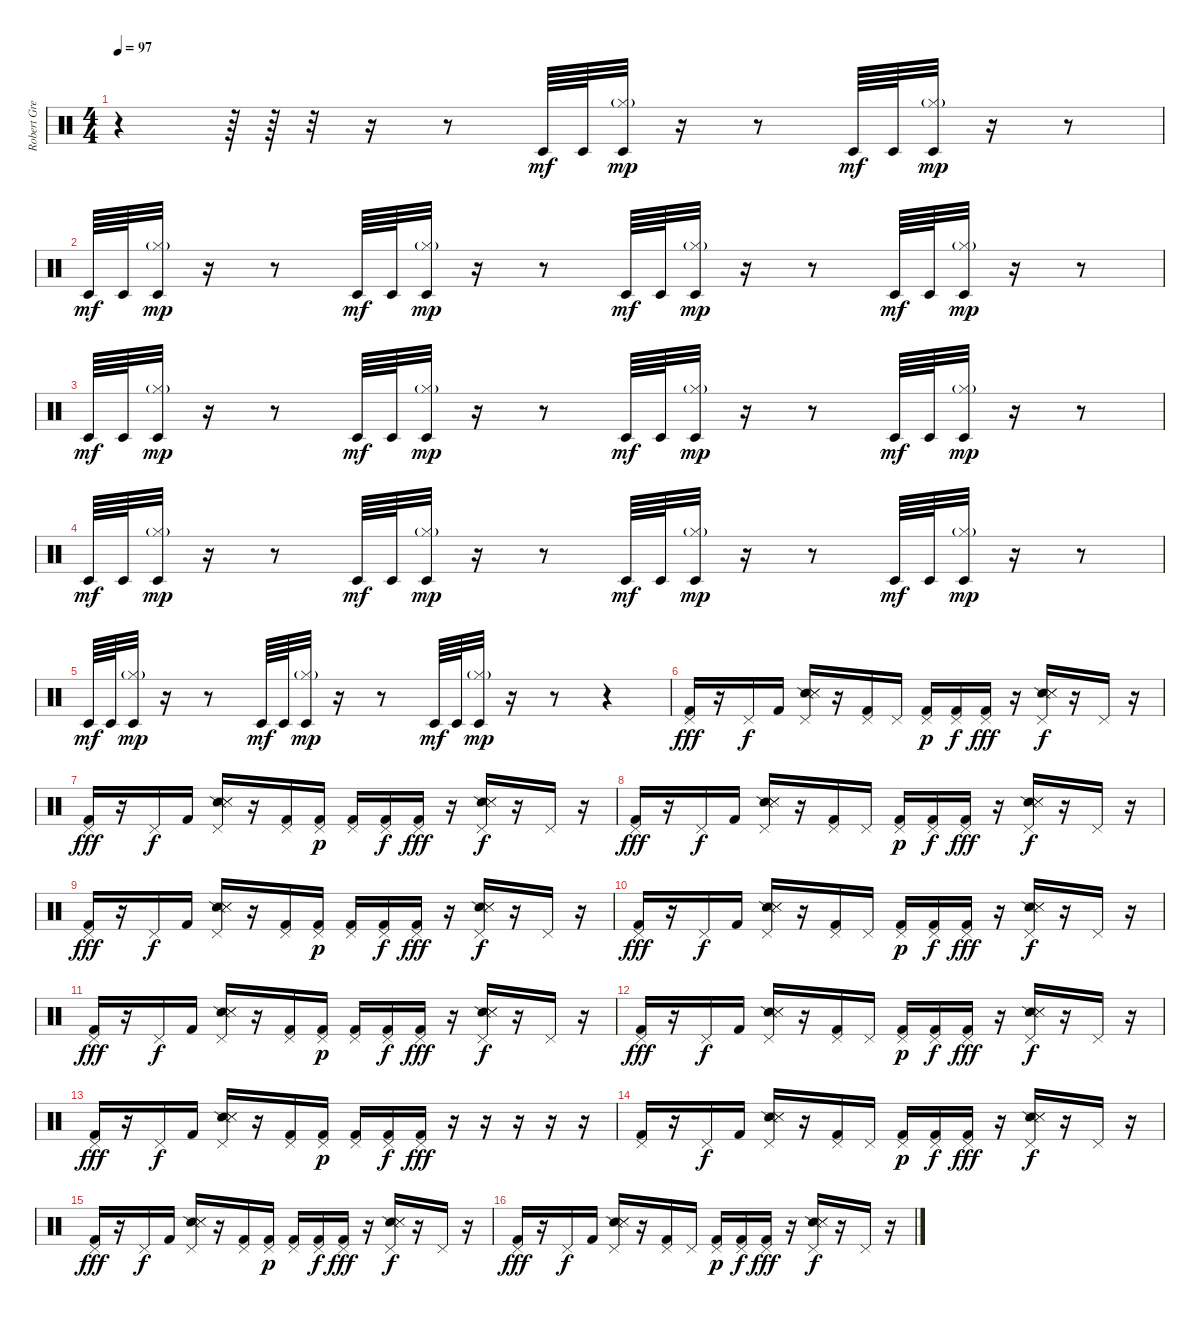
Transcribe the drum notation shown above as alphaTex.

\track ("Robert Gregory Bourdan/'Groop' sound" "Robert Gre") {instrument percussion}
\staff {score}
\articulation defaults
\ts (4 4)
\tempo 97
\clef neutral
\ks c
r.4{dy mf volume 12} r.64 r.64 r.32 r.16 r.8 "Timbale low (hit)".64 "Timbale low (hit)".64 ("Timbale low (hit)" "Hi-Hat (closed)"{g}).32{dy mp} r.16 r.8 "Timbale low (hit)".64{dy mf} "Timbale low (hit)".64 ("Timbale low (hit)" "Hi-Hat (closed)"{g}).32{dy mp} r.16 r.8 |
"Timbale low (hit)".64{dy mf volume 12} "Timbale low (hit)".64 ("Timbale low (hit)" "Hi-Hat (closed)"{g}).32{dy mp} r.16 r.8 "Timbale low (hit)".64{dy mf} "Timbale low (hit)".64 ("Timbale low (hit)" "Hi-Hat (closed)"{g}).32{dy mp} r.16 r.8 "Timbale low (hit)".64{dy mf} "Timbale low (hit)".64 ("Timbale low (hit)" "Hi-Hat (closed)"{g}).32{dy mp} r.16 r.8 "Timbale low (hit)".64{dy mf} "Timbale low (hit)".64 ("Timbale low (hit)" "Hi-Hat (closed)"{g}).32{dy mp} r.16 r.8 |
"Timbale low (hit)".64{dy mf volume 12} "Timbale low (hit)".64 ("Timbale low (hit)" "Hi-Hat (closed)"{g}).32{dy mp} r.16 r.8 "Timbale low (hit)".64{dy mf} "Timbale low (hit)".64 ("Timbale low (hit)" "Hi-Hat (closed)"{g}).32{dy mp} r.16 r.8 "Timbale low (hit)".64{dy mf} "Timbale low (hit)".64 ("Timbale low (hit)" "Hi-Hat (closed)"{g}).32{dy mp} r.16 r.8 "Timbale low (hit)".64{dy mf} "Timbale low (hit)".64 ("Timbale low (hit)" "Hi-Hat (closed)"{g}).32{dy mp} r.16 r.8 |
"Timbale low (hit)".64{dy mf volume 12} "Timbale low (hit)".64 ("Timbale low (hit)" "Hi-Hat (closed)"{g}).32{dy mp} r.16 r.8 "Timbale low (hit)".64{dy mf} "Timbale low (hit)".64 ("Timbale low (hit)" "Hi-Hat (closed)"{g}).32{dy mp} r.16 r.8 "Timbale low (hit)".64{dy mf} "Timbale low (hit)".64 ("Timbale low (hit)" "Hi-Hat (closed)"{g}).32{dy mp} r.16 r.8 "Timbale low (hit)".64{dy mf} "Timbale low (hit)".64 ("Timbale low (hit)" "Hi-Hat (closed)"{g}).32{dy mp} r.16 r.8 |
"Timbale low (hit)".64{dy mf volume 12} "Timbale low (hit)".64 ("Timbale low (hit)" "Hi-Hat (closed)"{g}).32{dy mp} r.16 r.8 "Timbale low (hit)".64{dy mf} "Timbale low (hit)".64 ("Timbale low (hit)" "Hi-Hat (closed)"{g}).32{dy mp} r.16 r.8 "Timbale low (hit)".64{dy mf} "Timbale low (hit)".64 ("Timbale low (hit)" "Hi-Hat (closed)"{g}).32{dy mp} r.16 r.8 r.4 |
("Pedal Hi-Hat (hit)" "Kick (hit) 2").16{dy fff volume 16} r.16 "Pedal Hi-Hat (hit)".16{dy f} "Kick (hit) 2".16 ("Pedal Hi-Hat (hit)" "Snare (side stick) 2" "Metronome (hit)" "Snare (side stick) 3").16 r.16 ("Pedal Hi-Hat (hit)" "Kick (hit) 2").16 "Pedal Hi-Hat (hit)".16 ("Pedal Hi-Hat (hit)" "Kick (hit) 2").16{dy p} ("Pedal Hi-Hat (hit)" "Kick (hit) 2").16{dy f} ("Pedal Hi-Hat (hit)" "Kick (hit) 2").16{dy fff} r.16 ("Pedal Hi-Hat (hit)" "Snare (side stick) 2" "Metronome (hit)" "Snare (side stick) 3").16{dy f} r.16 "Pedal Hi-Hat (hit)".16 r.16 |
("Pedal Hi-Hat (hit)" "Kick (hit) 2").16{dy fff} r.16 "Pedal Hi-Hat (hit)".16{dy f} "Kick (hit) 2".16 ("Pedal Hi-Hat (hit)" "Snare (side stick) 2" "Metronome (hit)" "Snare (side stick) 3").16 r.16 ("Pedal Hi-Hat (hit)" "Kick (hit) 2").16 ("Pedal Hi-Hat (hit)" "Kick (hit) 2").16{dy p} ("Pedal Hi-Hat (hit)" "Kick (hit) 2").16 ("Pedal Hi-Hat (hit)" "Kick (hit) 2").16{dy f} ("Pedal Hi-Hat (hit)" "Kick (hit) 2").16{dy fff} r.16 ("Pedal Hi-Hat (hit)" "Snare (side stick) 2" "Metronome (hit)" "Snare (side stick) 3").16{dy f} r.16 "Pedal Hi-Hat (hit)".16 r.16 |
("Pedal Hi-Hat (hit)" "Kick (hit) 2").16{dy fff} r.16 "Pedal Hi-Hat (hit)".16{dy f} "Kick (hit) 2".16 ("Pedal Hi-Hat (hit)" "Snare (side stick) 2" "Metronome (hit)" "Snare (side stick) 3").16 r.16 ("Pedal Hi-Hat (hit)" "Kick (hit) 2").16 "Pedal Hi-Hat (hit)".16 ("Pedal Hi-Hat (hit)" "Kick (hit) 2").16{dy p} ("Pedal Hi-Hat (hit)" "Kick (hit) 2").16{dy f} ("Pedal Hi-Hat (hit)" "Kick (hit) 2").16{dy fff} r.16 ("Pedal Hi-Hat (hit)" "Snare (side stick) 2" "Metronome (hit)" "Snare (side stick) 3").16{dy f} r.16 "Pedal Hi-Hat (hit)".16 r.16 |
("Pedal Hi-Hat (hit)" "Kick (hit) 2").16{dy fff} r.16 "Pedal Hi-Hat (hit)".16{dy f} "Kick (hit) 2".16 ("Pedal Hi-Hat (hit)" "Snare (side stick) 2" "Metronome (hit)" "Snare (side stick) 3").16 r.16 ("Pedal Hi-Hat (hit)" "Kick (hit) 2").16 ("Pedal Hi-Hat (hit)" "Kick (hit) 2").16{dy p} ("Pedal Hi-Hat (hit)" "Kick (hit) 2").16 ("Pedal Hi-Hat (hit)" "Kick (hit) 2").16{dy f} ("Pedal Hi-Hat (hit)" "Kick (hit) 2").16{dy fff} r.16 ("Pedal Hi-Hat (hit)" "Snare (side stick) 2" "Metronome (hit)" "Snare (side stick) 3").16{dy f} r.16 "Pedal Hi-Hat (hit)".16 r.16 |
("Pedal Hi-Hat (hit)" "Kick (hit) 2").16{dy fff} r.16 "Pedal Hi-Hat (hit)".16{dy f} "Kick (hit) 2".16 ("Pedal Hi-Hat (hit)" "Snare (side stick) 2" "Metronome (hit)" "Snare (side stick) 3").16 r.16 ("Pedal Hi-Hat (hit)" "Kick (hit) 2").16 "Pedal Hi-Hat (hit)".16 ("Pedal Hi-Hat (hit)" "Kick (hit) 2").16{dy p} ("Pedal Hi-Hat (hit)" "Kick (hit) 2").16{dy f} ("Pedal Hi-Hat (hit)" "Kick (hit) 2").16{dy fff} r.16 ("Pedal Hi-Hat (hit)" "Snare (side stick) 2" "Metronome (hit)" "Snare (side stick) 3").16{dy f} r.16 "Pedal Hi-Hat (hit)".16 r.16 |
("Pedal Hi-Hat (hit)" "Kick (hit) 2").16{dy fff} r.16 "Pedal Hi-Hat (hit)".16{dy f} "Kick (hit) 2".16 ("Pedal Hi-Hat (hit)" "Snare (side stick) 2" "Metronome (hit)" "Snare (side stick) 3").16 r.16 ("Pedal Hi-Hat (hit)" "Kick (hit) 2").16 ("Pedal Hi-Hat (hit)" "Kick (hit) 2").16{dy p} ("Pedal Hi-Hat (hit)" "Kick (hit) 2").16 ("Pedal Hi-Hat (hit)" "Kick (hit) 2").16{dy f} ("Pedal Hi-Hat (hit)" "Kick (hit) 2").16{dy fff} r.16 ("Pedal Hi-Hat (hit)" "Snare (side stick) 2" "Metronome (hit)" "Snare (side stick) 3").16{dy f} r.16 "Pedal Hi-Hat (hit)".16 r.16 |
("Pedal Hi-Hat (hit)" "Kick (hit) 2").16{dy fff} r.16 "Pedal Hi-Hat (hit)".16{dy f} "Kick (hit) 2".16 ("Pedal Hi-Hat (hit)" "Snare (side stick) 2" "Metronome (hit)" "Snare (side stick) 3").16 r.16 ("Pedal Hi-Hat (hit)" "Kick (hit) 2").16 "Pedal Hi-Hat (hit)".16 ("Pedal Hi-Hat (hit)" "Kick (hit) 2").16{dy p} ("Pedal Hi-Hat (hit)" "Kick (hit) 2").16{dy f} ("Pedal Hi-Hat (hit)" "Kick (hit) 2").16{dy fff} r.16 ("Pedal Hi-Hat (hit)" "Snare (side stick) 2" "Metronome (hit)" "Snare (side stick) 3").16{dy f} r.16 "Pedal Hi-Hat (hit)".16 r.16 |
("Pedal Hi-Hat (hit)" "Kick (hit) 2").16{dy fff} r.16 "Pedal Hi-Hat (hit)".16{dy f} "Kick (hit) 2".16 ("Pedal Hi-Hat (hit)" "Snare (side stick) 2" "Metronome (hit)" "Snare (side stick) 3").16 r.16 ("Pedal Hi-Hat (hit)" "Kick (hit) 2").16 ("Pedal Hi-Hat (hit)" "Kick (hit) 2").16{dy p} ("Pedal Hi-Hat (hit)" "Kick (hit) 2").16 ("Pedal Hi-Hat (hit)" "Kick (hit) 2").16{dy f} ("Pedal Hi-Hat (hit)" "Kick (hit) 2").16{dy fff} r.16 r.16 r.16 r.16 r.16 |
("Pedal Hi-Hat (hit)" "Kick (hit) 2").16 r.16 "Pedal Hi-Hat (hit)".16{dy f} "Kick (hit) 2".16 ("Pedal Hi-Hat (hit)" "Snare (side stick) 2" "Metronome (hit)" "Snare (side stick) 3").16 r.16 ("Pedal Hi-Hat (hit)" "Kick (hit) 2").16 "Pedal Hi-Hat (hit)".16 ("Pedal Hi-Hat (hit)" "Kick (hit) 2").16{dy p} ("Pedal Hi-Hat (hit)" "Kick (hit) 2").16{dy f} ("Pedal Hi-Hat (hit)" "Kick (hit) 2").16{dy fff} r.16 ("Pedal Hi-Hat (hit)" "Snare (side stick) 2" "Metronome (hit)" "Snare (side stick) 3").16{dy f} r.16 "Pedal Hi-Hat (hit)".16 r.16 |
("Pedal Hi-Hat (hit)" "Kick (hit) 2").16{dy fff} r.16 "Pedal Hi-Hat (hit)".16{dy f} "Kick (hit) 2".16 ("Pedal Hi-Hat (hit)" "Snare (side stick) 2" "Metronome (hit)" "Snare (side stick) 3").16 r.16 ("Pedal Hi-Hat (hit)" "Kick (hit) 2").16 ("Pedal Hi-Hat (hit)" "Kick (hit) 2").16{dy p} ("Pedal Hi-Hat (hit)" "Kick (hit) 2").16 ("Pedal Hi-Hat (hit)" "Kick (hit) 2").16{dy f} ("Pedal Hi-Hat (hit)" "Kick (hit) 2").16{dy fff} r.16 ("Pedal Hi-Hat (hit)" "Snare (side stick) 2" "Metronome (hit)" "Snare (side stick) 3").16{dy f} r.16 "Pedal Hi-Hat (hit)".16 r.16 |
("Pedal Hi-Hat (hit)" "Kick (hit) 2").16{dy fff} r.16 "Pedal Hi-Hat (hit)".16{dy f} "Kick (hit) 2".16 ("Pedal Hi-Hat (hit)" "Snare (side stick) 2" "Metronome (hit)" "Snare (side stick) 3").16 r.16 ("Pedal Hi-Hat (hit)" "Kick (hit) 2").16 "Pedal Hi-Hat (hit)".16 ("Pedal Hi-Hat (hit)" "Kick (hit) 2").16{dy p} ("Pedal Hi-Hat (hit)" "Kick (hit) 2").16{dy f} ("Pedal Hi-Hat (hit)" "Kick (hit) 2").16{dy fff} r.16 ("Pedal Hi-Hat (hit)" "Snare (side stick) 2" "Metronome (hit)" "Snare (side stick) 3").16{dy f} r.16 "Pedal Hi-Hat (hit)".16 r.16
